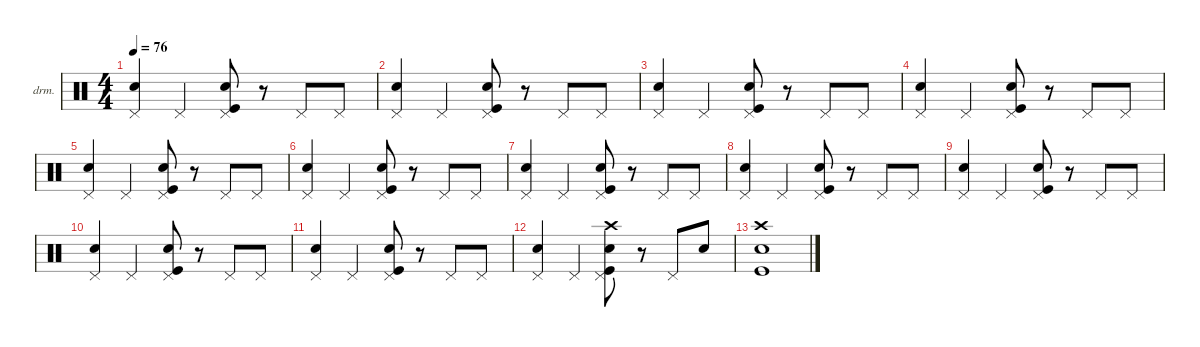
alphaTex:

\defaultSystemsLayout 4
\hideDynamics
\bracketExtendMode nobrackets
\firstSystemTrackNameOrientation horizontal
\otherSystemsTrackNameOrientation horizontal
\track ("Drums" "drm.") {instrument percussion}
\staff {score}
\articulation defaults
\ts (4 4)
\tempo 76
\clef neutral
\ks c
("Pedal Hi-Hat (hit)" "Snare (hit) 2").4{dy f} "Pedal Hi-Hat (hit)".4 ("Pedal Hi-Hat (hit)" "Snare (hit) 2" "Kick (hit)").8 r.8 "Pedal Hi-Hat (hit)".8 "Pedal Hi-Hat (hit)".8 |
("Pedal Hi-Hat (hit)" "Snare (hit) 2").4 "Pedal Hi-Hat (hit)".4 ("Pedal Hi-Hat (hit)" "Snare (hit) 2" "Kick (hit)").8 r.8 "Pedal Hi-Hat (hit)".8 "Pedal Hi-Hat (hit)".8 |
("Pedal Hi-Hat (hit)" "Snare (hit) 2").4 "Pedal Hi-Hat (hit)".4 ("Pedal Hi-Hat (hit)" "Snare (hit) 2" "Kick (hit)").8 r.8 "Pedal Hi-Hat (hit)".8 "Pedal Hi-Hat (hit)".8 |
("Pedal Hi-Hat (hit)" "Snare (hit) 2").4 "Pedal Hi-Hat (hit)".4 ("Pedal Hi-Hat (hit)" "Snare (hit) 2" "Kick (hit)").8 r.8 "Pedal Hi-Hat (hit)".8 "Pedal Hi-Hat (hit)".8 |
("Pedal Hi-Hat (hit)" "Snare (hit) 2").4 "Pedal Hi-Hat (hit)".4 ("Pedal Hi-Hat (hit)" "Snare (hit) 2" "Kick (hit)").8 r.8 "Pedal Hi-Hat (hit)".8 "Pedal Hi-Hat (hit)".8 |
("Pedal Hi-Hat (hit)" "Snare (hit) 2").4 "Pedal Hi-Hat (hit)".4 ("Pedal Hi-Hat (hit)" "Snare (hit) 2" "Kick (hit)").8 r.8 "Pedal Hi-Hat (hit)".8 "Pedal Hi-Hat (hit)".8 |
("Pedal Hi-Hat (hit)" "Snare (hit) 2").4 "Pedal Hi-Hat (hit)".4 ("Pedal Hi-Hat (hit)" "Snare (hit) 2" "Kick (hit)").8 r.8 "Pedal Hi-Hat (hit)".8 "Pedal Hi-Hat (hit)".8 |
("Pedal Hi-Hat (hit)" "Snare (hit) 2").4 "Pedal Hi-Hat (hit)".4 ("Pedal Hi-Hat (hit)" "Snare (hit) 2" "Kick (hit)").8 r.8 "Pedal Hi-Hat (hit)".8 "Pedal Hi-Hat (hit)".8 |
("Pedal Hi-Hat (hit)" "Snare (hit) 2").4 "Pedal Hi-Hat (hit)".4 ("Pedal Hi-Hat (hit)" "Snare (hit) 2" "Kick (hit)").8 r.8 "Pedal Hi-Hat (hit)".8 "Pedal Hi-Hat (hit)".8 |
("Pedal Hi-Hat (hit)" "Snare (hit) 2").4 "Pedal Hi-Hat (hit)".4 ("Pedal Hi-Hat (hit)" "Snare (hit) 2" "Kick (hit)").8 r.8 "Pedal Hi-Hat (hit)".8 "Pedal Hi-Hat (hit)".8 |
("Pedal Hi-Hat (hit)" "Snare (hit) 2").4 "Pedal Hi-Hat (hit)".4 ("Pedal Hi-Hat (hit)" "Snare (hit) 2" "Kick (hit)").8 r.8 "Pedal Hi-Hat (hit)".8 "Pedal Hi-Hat (hit)".8 |
("Pedal Hi-Hat (hit)" "Snare (hit) 2").4 "Pedal Hi-Hat (hit)".4 ("Pedal Hi-Hat (hit)" "Crash high (hit)" "Snare (hit) 2" "Kick (hit)").8 r.8 "Pedal Hi-Hat (hit)".8 "Snare (hit) 2".8 |
("Crash high (hit)" "Snare (hit) 2" "Kick (hit)").1
